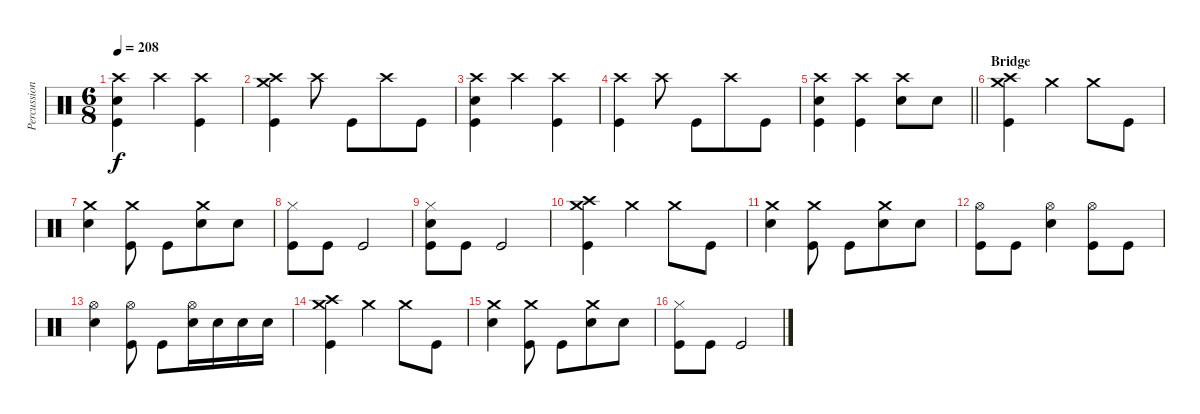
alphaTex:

\track ("Percussion" "Percussion") {instrument percussion}
\staff {score}
\articulation defaults
\ts (6 8)
\tempo 208
\clef neutral
\ks c
("Crash high (hit)" "Electric Snare (hit)" "Kick (hit)").4{dy f} "Crash high (hit)".4 ("Crash high (hit)" "Kick (hit)").4 |
("Crash medium (hit)" "Crash high (hit)" "Kick (hit)").4 "Crash high (hit)".8 "Kick (hit)".8 "Crash high (hit)".8 "Kick (hit)".8 |
("Crash high (hit)" "Electric Snare (hit)" "Kick (hit)").4 "Crash high (hit)".4 ("Crash high (hit)" "Kick (hit)").4 |
("Crash high (hit)" "Kick (hit)").4 "Crash high (hit)".8 "Kick (hit)".8 "Crash high (hit)".8 "Kick (hit)".8 |
\barLineRight lightlight
("Crash high (hit)" "Electric Snare (hit)" "Kick (hit)").4 ("Crash high (hit)" "Kick (hit)").4 ("Crash high (hit)" "Electric Snare (hit)").8 "Electric Snare (hit)".8 |
\section ("" "Bridge")
("Crash medium (hit)" "Crash high (hit)" "Kick (hit)").4 "Crash medium (hit)".4 "Crash medium (hit)".8 "Kick (hit)".8 |
("Crash medium (hit)" "Electric Snare (hit)").4 ("Crash medium (hit)" "Kick (hit)").8 "Kick (hit)".8 ("Crash medium (hit)" "Electric Snare (hit)").8 "Electric Snare (hit)".8 |
("Hi-Hat (closed)" "Kick (hit)").8 "Kick (hit)".8 "Kick (hit)".2 |
("Hi-Hat (closed)" "Electric Snare (hit)" "Kick (hit)").8 "Kick (hit)".8 "Kick (hit)".2 |
("Crash medium (hit)" "Crash high (hit)" "Kick (hit)").4 "Crash medium (hit)".4 "Crash medium (hit)".8 "Kick (hit)".8 |
("Crash medium (hit)" "Electric Snare (hit)").4 ("Crash medium (hit)" "Kick (hit)").8 "Kick (hit)".8 ("Crash medium (hit)" "Electric Snare (hit)").8 "Electric Snare (hit)".8 |
("Hi-Hat (open)" "Kick (hit)").8 "Kick (hit)".8 ("Hi-Hat (open)" "Electric Snare (hit)").4 ("Hi-Hat (open)" "Kick (hit)").8 "Kick (hit)".8 |
("Hi-Hat (open)" "Electric Snare (hit)").4 ("Hi-Hat (open)" "Kick (hit)").8 "Kick (hit)".8 ("Hi-Hat (open)" "Electric Snare (hit)").16 "Electric Snare (hit)".16 "Electric Snare (hit)".16 "Electric Snare (hit)".16 |
("Crash medium (hit)" "Crash high (hit)" "Kick (hit)").4 "Crash medium (hit)".4 "Crash medium (hit)".8 "Kick (hit)".8 |
("Crash medium (hit)" "Electric Snare (hit)").4 ("Crash medium (hit)" "Kick (hit)").8 "Kick (hit)".8 ("Crash medium (hit)" "Electric Snare (hit)").8 "Electric Snare (hit)".8 |
("Hi-Hat (closed)" "Kick (hit)").8 "Kick (hit)".8 "Kick (hit)".2
